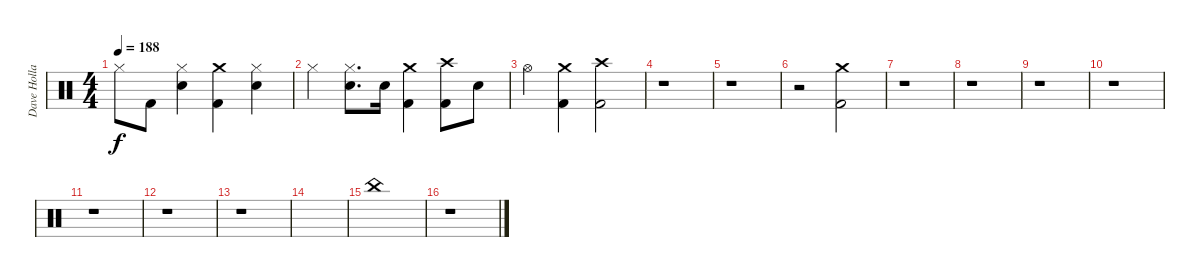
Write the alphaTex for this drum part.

\track ("Dave Holland" "Dave Holla") {instrument percussion}
\staff {score}
\articulation defaults
\ts (4 4)
\tempo 188
\clef neutral
\ks c "Hi-Hat (closed)".8{dy f} "Kick (hit) 2".8
("Snare (hit) 2" "Hi-Hat (closed)").4 ("Kick (hit) 2" "Crash medium (hit)").4 ("Snare (hit) 2" "Hi-Hat (closed)").4 |
"Hi-Hat (closed)".4 ("Snare (hit) 2" "Hi-Hat (closed)").8{d} "Snare (hit) 2".16 ("Crash medium (hit)" "Kick (hit) 2").4 ("Kick (hit) 2" "Crash high (hit)").8 "Snare (hit) 2".8 |
"Hi-Hat (open)".4 ("Kick (hit) 2" "Crash medium (hit)").4 ("Crash high (hit)" "Kick (hit) 2").2 |
r.1 |
r.1 |
r.2 ("Crash medium (hit)" "Kick (hit) 2").2 |
r.1 |
r.1 |
r.1 |
r.1 |
r.1 |
r.1 |
r.1 |
|
"China (hit)".1 |
r.1
